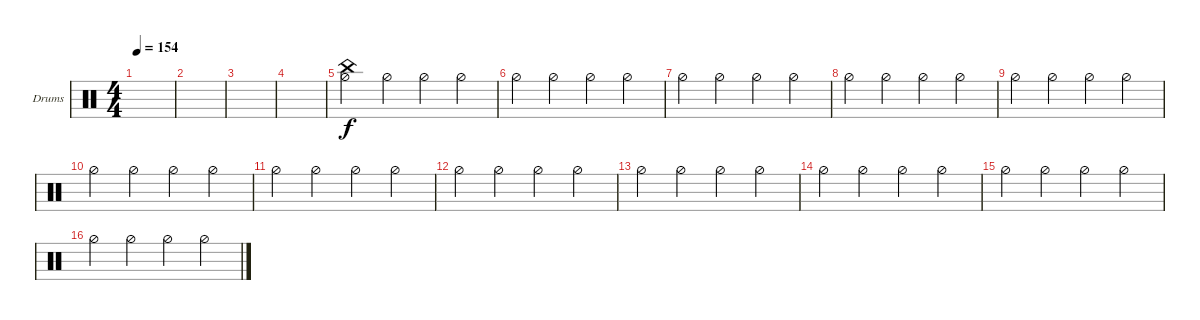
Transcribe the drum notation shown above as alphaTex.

\defaultSystemsLayout 4
\bracketExtendMode groupsimilarinstruments
\firstSystemTrackNameOrientation horizontal
\otherSystemsTrackNameOrientation horizontal
\track ("Drumkit" "Drums") {instrument percussion}
\staff {score}
\articulation defaults
\ts (4 4)
\tempo 154
\clef neutral
\ks c
|
|
|
|
("Hi-Hat (half)" "China (hit)").4 "Hi-Hat (half)".4 "Hi-Hat (half)".4 "Hi-Hat (half)".4 |
"Hi-Hat (half)".4 "Hi-Hat (half)".4 "Hi-Hat (half)".4 "Hi-Hat (half)".4 |
"Hi-Hat (half)".4 "Hi-Hat (half)".4 "Hi-Hat (half)".4 "Hi-Hat (half)".4 |
"Hi-Hat (half)".4 "Hi-Hat (half)".4 "Hi-Hat (half)".4 "Hi-Hat (half)".4 |
"Hi-Hat (half)".4 "Hi-Hat (half)".4 "Hi-Hat (half)".4 "Hi-Hat (half)".4 |
"Hi-Hat (half)".4 "Hi-Hat (half)".4 "Hi-Hat (half)".4 "Hi-Hat (half)".4 |
"Hi-Hat (half)".4 "Hi-Hat (half)".4 "Hi-Hat (half)".4 "Hi-Hat (half)".4 |
"Hi-Hat (half)".4 "Hi-Hat (half)".4 "Hi-Hat (half)".4 "Hi-Hat (half)".4 |
"Hi-Hat (half)".4 "Hi-Hat (half)".4 "Hi-Hat (half)".4 "Hi-Hat (half)".4 |
"Hi-Hat (half)".4 "Hi-Hat (half)".4 "Hi-Hat (half)".4 "Hi-Hat (half)".4 |
"Hi-Hat (half)".4 "Hi-Hat (half)".4 "Hi-Hat (half)".4 "Hi-Hat (half)".4 |
"Hi-Hat (half)".4 "Hi-Hat (half)".4 "Hi-Hat (half)".4 "Hi-Hat (half)".4
